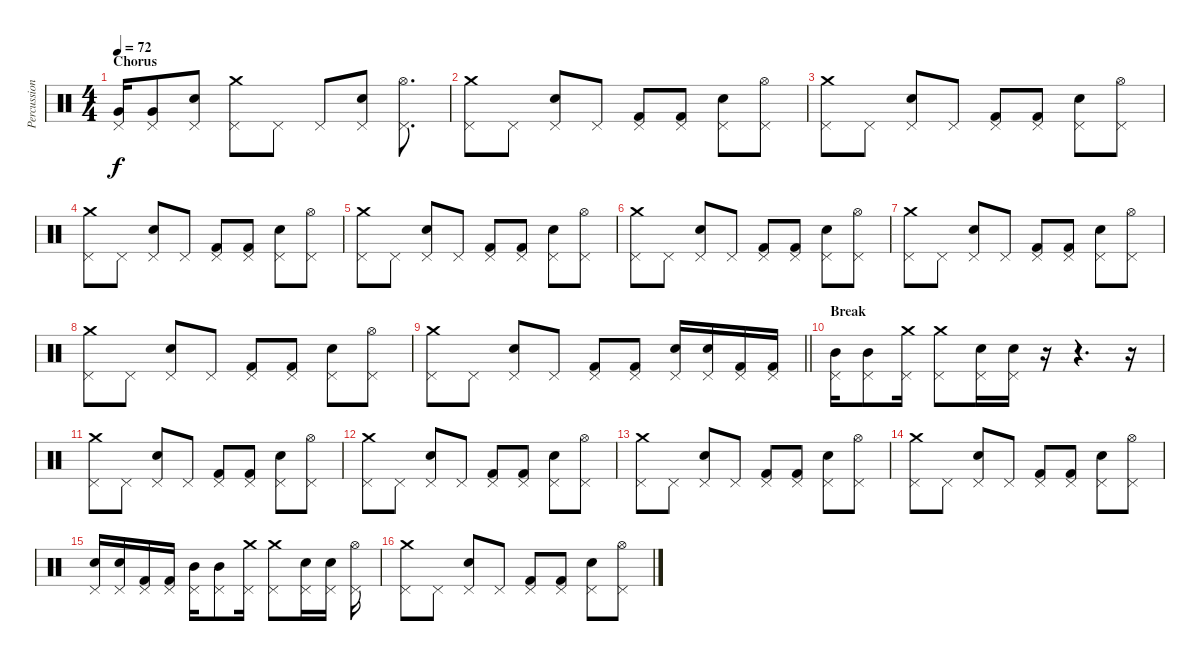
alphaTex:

\track ("Percussion" "Percussion") {instrument percussion}
\staff {score}
\articulation defaults
\ts (4 4)
\section ("" "Chorus")
\tempo 72
\clef neutral
\ks c
("Pedal Hi-Hat (hit)" "Very Low Tom (hit)").16{dy f} ("Pedal Hi-Hat (hit)" "Very Low Tom (hit)").8 ("Pedal Hi-Hat (hit)" "Snare (hit) 2").8 ("Pedal Hi-Hat (hit)" "Crash medium (hit)").8 "Pedal Hi-Hat (hit)".8 "Pedal Hi-Hat (hit)".8 ("Pedal Hi-Hat (hit)" "Snare (hit) 2").8 ("Pedal Hi-Hat (hit)" "Hi-Hat (open)").8{d} |
("Pedal Hi-Hat (hit)" "Crash medium (hit)").8 "Pedal Hi-Hat (hit)".8 ("Pedal Hi-Hat (hit)" "Snare (hit) 2").8 "Pedal Hi-Hat (hit)".8 ("Pedal Hi-Hat (hit)" "Kick (hit) 2").8 ("Pedal Hi-Hat (hit)" "Kick (hit) 2").8 ("Pedal Hi-Hat (hit)" "Snare (hit) 2").8 ("Pedal Hi-Hat (hit)" "Hi-Hat (open)").8 |
("Pedal Hi-Hat (hit)" "Crash medium (hit)").8 "Pedal Hi-Hat (hit)".8 ("Pedal Hi-Hat (hit)" "Snare (hit) 2").8 "Pedal Hi-Hat (hit)".8 ("Pedal Hi-Hat (hit)" "Kick (hit) 2").8 ("Pedal Hi-Hat (hit)" "Kick (hit) 2").8 ("Pedal Hi-Hat (hit)" "Snare (hit) 2").8 ("Pedal Hi-Hat (hit)" "Hi-Hat (open)").8 |
("Pedal Hi-Hat (hit)" "Crash medium (hit)").8 "Pedal Hi-Hat (hit)".8 ("Pedal Hi-Hat (hit)" "Snare (hit) 2").8 "Pedal Hi-Hat (hit)".8 ("Pedal Hi-Hat (hit)" "Kick (hit) 2").8 ("Pedal Hi-Hat (hit)" "Kick (hit) 2").8 ("Pedal Hi-Hat (hit)" "Snare (hit) 2").8 ("Pedal Hi-Hat (hit)" "Hi-Hat (open)").8 |
("Pedal Hi-Hat (hit)" "Crash medium (hit)").8 "Pedal Hi-Hat (hit)".8 ("Pedal Hi-Hat (hit)" "Snare (hit) 2").8 "Pedal Hi-Hat (hit)".8 ("Pedal Hi-Hat (hit)" "Kick (hit) 2").8 ("Pedal Hi-Hat (hit)" "Kick (hit) 2").8 ("Pedal Hi-Hat (hit)" "Snare (hit) 2").8 ("Pedal Hi-Hat (hit)" "Hi-Hat (open)").8 |
("Pedal Hi-Hat (hit)" "Crash medium (hit)").8 "Pedal Hi-Hat (hit)".8 ("Pedal Hi-Hat (hit)" "Snare (hit) 2").8 "Pedal Hi-Hat (hit)".8 ("Pedal Hi-Hat (hit)" "Kick (hit) 2").8 ("Pedal Hi-Hat (hit)" "Kick (hit) 2").8 ("Pedal Hi-Hat (hit)" "Snare (hit) 2").8 ("Pedal Hi-Hat (hit)" "Hi-Hat (open)").8 |
("Pedal Hi-Hat (hit)" "Crash medium (hit)").8 "Pedal Hi-Hat (hit)".8 ("Pedal Hi-Hat (hit)" "Snare (hit) 2").8 "Pedal Hi-Hat (hit)".8 ("Pedal Hi-Hat (hit)" "Kick (hit) 2").8 ("Pedal Hi-Hat (hit)" "Kick (hit) 2").8 ("Pedal Hi-Hat (hit)" "Snare (hit) 2").8 ("Pedal Hi-Hat (hit)" "Hi-Hat (open)").8 |
("Pedal Hi-Hat (hit)" "Crash medium (hit)").8 "Pedal Hi-Hat (hit)".8 ("Pedal Hi-Hat (hit)" "Snare (hit) 2").8 "Pedal Hi-Hat (hit)".8 ("Pedal Hi-Hat (hit)" "Kick (hit) 2").8 ("Pedal Hi-Hat (hit)" "Kick (hit) 2").8 ("Pedal Hi-Hat (hit)" "Snare (hit) 2").8 ("Pedal Hi-Hat (hit)" "Hi-Hat (open)").8 |
\barLineRight lightlight
("Pedal Hi-Hat (hit)" "Crash medium (hit)").8 "Pedal Hi-Hat (hit)".8 ("Pedal Hi-Hat (hit)" "Snare (hit) 2").8 "Pedal Hi-Hat (hit)".8 ("Pedal Hi-Hat (hit)" "Kick (hit) 2").8 ("Pedal Hi-Hat (hit)" "Kick (hit) 2").8 ("Pedal Hi-Hat (hit)" "Snare (hit) 2").16 ("Pedal Hi-Hat (hit)" "Snare (hit) 2").16 ("Pedal Hi-Hat (hit)" "Kick (hit) 2").16 ("Pedal Hi-Hat (hit)" "Kick (hit) 2").16 |
\section ("" "Break")
("Pedal Hi-Hat (hit)" "Mid Tom (hit)").16 ("Pedal Hi-Hat (hit)" "Mid Tom (hit)").8 ("Pedal Hi-Hat (hit)" "Crash medium (hit)").16 ("Pedal Hi-Hat (hit)" "Crash medium (hit)").8 ("Pedal Hi-Hat (hit)" "Snare (hit) 2").16 ("Pedal Hi-Hat (hit)" "Snare (hit) 2").16 r.16 r.4{d} r.16 |
("Pedal Hi-Hat (hit)" "Crash medium (hit)").8 "Pedal Hi-Hat (hit)".8 ("Pedal Hi-Hat (hit)" "Snare (hit) 2").8 "Pedal Hi-Hat (hit)".8 ("Pedal Hi-Hat (hit)" "Kick (hit) 2").8 ("Pedal Hi-Hat (hit)" "Kick (hit) 2").8 ("Pedal Hi-Hat (hit)" "Snare (hit) 2").8 ("Pedal Hi-Hat (hit)" "Hi-Hat (open)").8 |
("Pedal Hi-Hat (hit)" "Crash medium (hit)").8 "Pedal Hi-Hat (hit)".8 ("Pedal Hi-Hat (hit)" "Snare (hit) 2").8 "Pedal Hi-Hat (hit)".8 ("Pedal Hi-Hat (hit)" "Kick (hit) 2").8 ("Pedal Hi-Hat (hit)" "Kick (hit) 2").8 ("Pedal Hi-Hat (hit)" "Snare (hit) 2").8 ("Pedal Hi-Hat (hit)" "Hi-Hat (open)").8 |
("Pedal Hi-Hat (hit)" "Crash medium (hit)").8 "Pedal Hi-Hat (hit)".8 ("Pedal Hi-Hat (hit)" "Snare (hit) 2").8 "Pedal Hi-Hat (hit)".8 ("Pedal Hi-Hat (hit)" "Kick (hit) 2").8 ("Pedal Hi-Hat (hit)" "Kick (hit) 2").8 ("Pedal Hi-Hat (hit)" "Snare (hit) 2").8 ("Pedal Hi-Hat (hit)" "Hi-Hat (open)").8 |
("Pedal Hi-Hat (hit)" "Crash medium (hit)").8 "Pedal Hi-Hat (hit)".8 ("Pedal Hi-Hat (hit)" "Snare (hit) 2").8 "Pedal Hi-Hat (hit)".8 ("Pedal Hi-Hat (hit)" "Kick (hit) 2").8 ("Pedal Hi-Hat (hit)" "Kick (hit) 2").8 ("Pedal Hi-Hat (hit)" "Snare (hit) 2").8 ("Pedal Hi-Hat (hit)" "Hi-Hat (open)").8 |
("Pedal Hi-Hat (hit)" "Snare (hit) 2").16 ("Pedal Hi-Hat (hit)" "Snare (hit) 2").16 ("Pedal Hi-Hat (hit)" "Kick (hit) 2").16 ("Pedal Hi-Hat (hit)" "Kick (hit) 2").16 ("Pedal Hi-Hat (hit)" "Mid Tom (hit)").16 ("Pedal Hi-Hat (hit)" "Mid Tom (hit)").8 ("Pedal Hi-Hat (hit)" "Crash medium (hit)").16 ("Pedal Hi-Hat (hit)" "Crash medium (hit)").8 ("Pedal Hi-Hat (hit)" "Snare (hit) 2").16 ("Pedal Hi-Hat (hit)" "Snare (hit) 2").16 ("Pedal Hi-Hat (hit)" "Hi-Hat (open)").16 |
("Pedal Hi-Hat (hit)" "Crash medium (hit)").8 "Pedal Hi-Hat (hit)".8 ("Pedal Hi-Hat (hit)" "Snare (hit) 2").8 "Pedal Hi-Hat (hit)".8 ("Pedal Hi-Hat (hit)" "Kick (hit) 2").8 ("Pedal Hi-Hat (hit)" "Kick (hit) 2").8 ("Pedal Hi-Hat (hit)" "Snare (hit) 2").8 ("Pedal Hi-Hat (hit)" "Hi-Hat (open)").8
